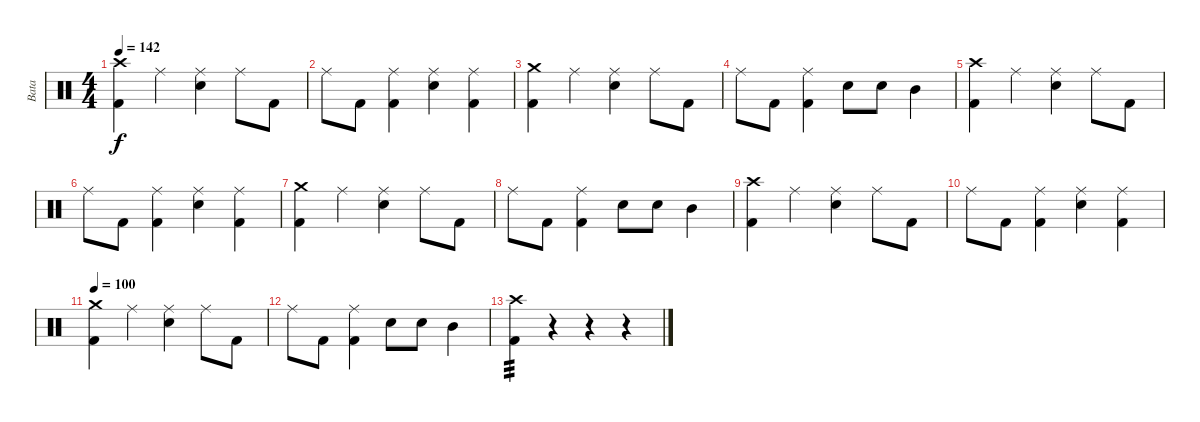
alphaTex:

\track ("Bata" "Bata") {instrument percussion}
\staff {score}
\articulation defaults
\ts (4 4)
\tempo 142
\clef neutral
\ks c
("Crash high (hit)" "Kick (hit) 2").4{dy f} "Ride (middle)".4 ("Ride (middle)" "Electric Snare (hit)").4 "Ride (middle)".8 "Kick (hit) 2".8 |
"Ride (middle)".8 "Kick (hit) 2".8 ("Ride (middle)" "Kick (hit) 2").4 ("Ride (middle)" "Electric Snare (hit)").4 ("Ride (middle)" "Kick (hit) 2").4 |
("Crash medium (hit)" "Kick (hit) 2").4 "Ride (middle)".4 ("Ride (middle)" "Electric Snare (hit)").4 "Ride (middle)".8 "Kick (hit) 2".8 |
"Ride (middle)".8 "Kick (hit) 2".8 ("Ride (middle)" "Kick (hit) 2").4 "Electric Snare (hit)".8 "Electric Snare (hit)".8 "Mid Tom (hit)".4 |
("Crash high (hit)" "Kick (hit) 2").4 "Ride (middle)".4 ("Ride (middle)" "Electric Snare (hit)").4 "Ride (middle)".8 "Kick (hit) 2".8 |
"Ride (middle)".8 "Kick (hit) 2".8 ("Ride (middle)" "Kick (hit) 2").4 ("Ride (middle)" "Electric Snare (hit)").4 ("Ride (middle)" "Kick (hit) 2").4 |
("Crash medium (hit)" "Kick (hit) 2").4 "Ride (middle)".4 ("Ride (middle)" "Electric Snare (hit)").4 "Ride (middle)".8 "Kick (hit) 2".8 |
"Ride (middle)".8 "Kick (hit) 2".8 ("Ride (middle)" "Kick (hit) 2").4 "Electric Snare (hit)".8 "Electric Snare (hit)".8 "Mid Tom (hit)".4 |
("Crash high (hit)" "Kick (hit) 2").4 "Ride (middle)".4 ("Ride (middle)" "Electric Snare (hit)").4 "Ride (middle)".8 "Kick (hit) 2".8 |
"Ride (middle)".8 "Kick (hit) 2".8 ("Ride (middle)" "Kick (hit) 2").4 ("Ride (middle)" "Electric Snare (hit)").4 ("Ride (middle)" "Kick (hit) 2").4 |
\tempo 100
("Crash medium (hit)" "Kick (hit) 2").4 "Ride (middle)".4 ("Ride (middle)" "Electric Snare (hit)").4 "Ride (middle)".8 "Kick (hit) 2".8 |
"Ride (middle)".8 "Kick (hit) 2".8 ("Ride (middle)" "Kick (hit) 2").4 "Snare (hit) 2".8 "Snare (hit) 2".8 "Mid Tom (hit)".4 |
("Crash high (hit)" "Kick (hit) 2").4{tp 3} r.4 r.4 r.4
